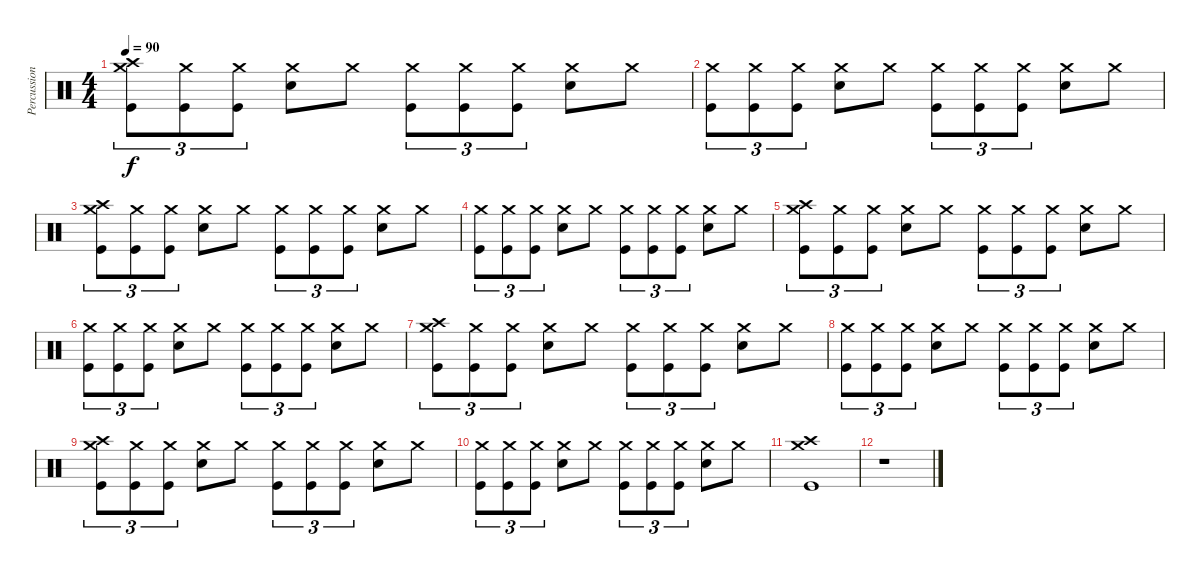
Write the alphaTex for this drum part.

\track ("Percussion" "Percussion") {instrument percussion}
\staff
\articulation defaults
\ts (4 4)
\tempo 90
\clef neutral
\ks c
("Crash high (hit)" "Crash medium (hit)" "Kick (hit)").8{tu (3 2) dy f} ("Crash medium (hit)" "Kick (hit)").8{tu (3 2)} ("Crash medium (hit)" "Kick (hit)").8{tu (3 2)} ("Crash medium (hit)" "Snare (hit) 2").8 "Crash medium (hit)".8 ("Crash medium (hit)" "Kick (hit)").8{tu (3 2)} ("Crash medium (hit)" "Kick (hit)").8{tu (3 2)} ("Crash medium (hit)" "Kick (hit)").8{tu (3 2)} ("Crash medium (hit)" "Snare (hit) 2").8 "Crash medium (hit)".8 |
("Crash medium (hit)" "Kick (hit)").8{tu (3 2)} ("Crash medium (hit)" "Kick (hit)").8{tu (3 2)} ("Crash medium (hit)" "Kick (hit)").8{tu (3 2)} ("Crash medium (hit)" "Snare (hit) 2").8 "Crash medium (hit)".8 ("Crash medium (hit)" "Kick (hit)").8{tu (3 2)} ("Crash medium (hit)" "Kick (hit)").8{tu (3 2)} ("Crash medium (hit)" "Kick (hit)").8{tu (3 2)} ("Crash medium (hit)" "Snare (hit) 2").8 "Crash medium (hit)".8 |
("Crash high (hit)" "Crash medium (hit)" "Kick (hit)").8{tu (3 2)} ("Crash medium (hit)" "Kick (hit)").8{tu (3 2)} ("Crash medium (hit)" "Kick (hit)").8{tu (3 2)} ("Crash medium (hit)" "Snare (hit) 2").8 "Crash medium (hit)".8 ("Crash medium (hit)" "Kick (hit)").8{tu (3 2)} ("Crash medium (hit)" "Kick (hit)").8{tu (3 2)} ("Crash medium (hit)" "Kick (hit)").8{tu (3 2)} ("Crash medium (hit)" "Snare (hit) 2").8 "Crash medium (hit)".8 |
("Crash medium (hit)" "Kick (hit)").8{tu (3 2)} ("Crash medium (hit)" "Kick (hit)").8{tu (3 2)} ("Crash medium (hit)" "Kick (hit)").8{tu (3 2)} ("Crash medium (hit)" "Snare (hit) 2").8 "Crash medium (hit)".8 ("Crash medium (hit)" "Kick (hit)").8{tu (3 2)} ("Crash medium (hit)" "Kick (hit)").8{tu (3 2)} ("Crash medium (hit)" "Kick (hit)").8{tu (3 2)} ("Crash medium (hit)" "Snare (hit) 2").8 "Crash medium (hit)".8 |
("Crash high (hit)" "Crash medium (hit)" "Kick (hit)").8{tu (3 2)} ("Crash medium (hit)" "Kick (hit)").8{tu (3 2)} ("Crash medium (hit)" "Kick (hit)").8{tu (3 2)} ("Crash medium (hit)" "Snare (hit) 2").8 "Crash medium (hit)".8 ("Crash medium (hit)" "Kick (hit)").8{tu (3 2)} ("Crash medium (hit)" "Kick (hit)").8{tu (3 2)} ("Crash medium (hit)" "Kick (hit)").8{tu (3 2)} ("Crash medium (hit)" "Snare (hit) 2").8 "Crash medium (hit)".8 |
("Crash medium (hit)" "Kick (hit)").8{tu (3 2)} ("Crash medium (hit)" "Kick (hit)").8{tu (3 2)} ("Crash medium (hit)" "Kick (hit)").8{tu (3 2)} ("Crash medium (hit)" "Snare (hit) 2").8 "Crash medium (hit)".8 ("Crash medium (hit)" "Kick (hit)").8{tu (3 2)} ("Crash medium (hit)" "Kick (hit)").8{tu (3 2)} ("Crash medium (hit)" "Kick (hit)").8{tu (3 2)} ("Crash medium (hit)" "Snare (hit) 2").8 "Crash medium (hit)".8 |
("Crash high (hit)" "Crash medium (hit)" "Kick (hit)").8{tu (3 2)} ("Crash medium (hit)" "Kick (hit)").8{tu (3 2)} ("Crash medium (hit)" "Kick (hit)").8{tu (3 2)} ("Crash medium (hit)" "Snare (hit) 2").8 "Crash medium (hit)".8 ("Crash medium (hit)" "Kick (hit)").8{tu (3 2)} ("Crash medium (hit)" "Kick (hit)").8{tu (3 2)} ("Crash medium (hit)" "Kick (hit)").8{tu (3 2)} ("Crash medium (hit)" "Snare (hit) 2").8 "Crash medium (hit)".8 |
("Crash medium (hit)" "Kick (hit)").8{tu (3 2)} ("Crash medium (hit)" "Kick (hit)").8{tu (3 2)} ("Crash medium (hit)" "Kick (hit)").8{tu (3 2)} ("Crash medium (hit)" "Snare (hit) 2").8 "Crash medium (hit)".8 ("Crash medium (hit)" "Kick (hit)").8{tu (3 2)} ("Crash medium (hit)" "Kick (hit)").8{tu (3 2)} ("Crash medium (hit)" "Kick (hit)").8{tu (3 2)} ("Crash medium (hit)" "Snare (hit) 2").8 "Crash medium (hit)".8 |
("Crash high (hit)" "Crash medium (hit)" "Kick (hit)").8{tu (3 2)} ("Crash medium (hit)" "Kick (hit)").8{tu (3 2)} ("Crash medium (hit)" "Kick (hit)").8{tu (3 2)} ("Crash medium (hit)" "Snare (hit) 2").8 "Crash medium (hit)".8 ("Crash medium (hit)" "Kick (hit)").8{tu (3 2)} ("Crash medium (hit)" "Kick (hit)").8{tu (3 2)} ("Crash medium (hit)" "Kick (hit)").8{tu (3 2)} ("Crash medium (hit)" "Snare (hit) 2").8 "Crash medium (hit)".8 |
("Crash medium (hit)" "Kick (hit)").8{tu (3 2)} ("Crash medium (hit)" "Kick (hit)").8{tu (3 2)} ("Crash medium (hit)" "Kick (hit)").8{tu (3 2)} ("Crash medium (hit)" "Snare (hit) 2").8 "Crash medium (hit)".8 ("Crash medium (hit)" "Kick (hit)").8{tu (3 2)} ("Crash medium (hit)" "Kick (hit)").8{tu (3 2)} ("Crash medium (hit)" "Kick (hit)").8{tu (3 2)} ("Crash medium (hit)" "Snare (hit) 2").8 "Crash medium (hit)".8 |
("Crash medium (hit)" "Crash high (hit)" "Kick (hit)").1 |
r.1
